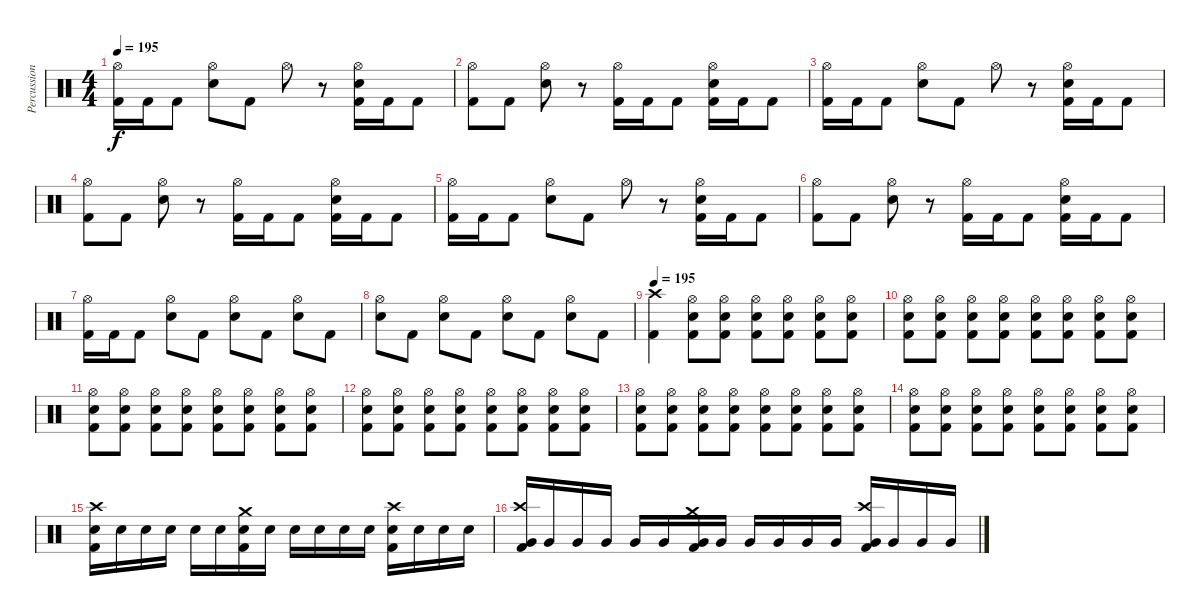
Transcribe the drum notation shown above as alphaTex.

\track ("Percussion" "Percussion") {instrument percussion}
\staff {score}
\articulation defaults
\ts (4 4)
\tempo 195
\clef neutral
\ks c
("Hi-Hat (open)" "Kick (hit) 2").16{dy f} "Kick (hit) 2".16 "Kick (hit) 2".8 ("Hi-Hat (open)" "Electric Snare (hit)").8 "Kick (hit) 2".8 "Hi-Hat (open)".8 r.8 ("Hi-Hat (open)" "Electric Snare (hit)" "Kick (hit) 2").16 "Kick (hit) 2".16 "Kick (hit) 2".8 |
("Hi-Hat (open)" "Kick (hit) 2").8 "Kick (hit) 2".8 ("Hi-Hat (open)" "Electric Snare (hit)").8 r.8 ("Hi-Hat (open)" "Kick (hit) 2").16 "Kick (hit) 2".16 "Kick (hit) 2".8 ("Hi-Hat (open)" "Electric Snare (hit)" "Kick (hit) 2").16 "Kick (hit) 2".16 "Kick (hit) 2".8 |
("Hi-Hat (open)" "Kick (hit) 2").16 "Kick (hit) 2".16 "Kick (hit) 2".8 ("Hi-Hat (open)" "Electric Snare (hit)").8 "Kick (hit) 2".8 "Hi-Hat (open)".8 r.8 ("Hi-Hat (open)" "Electric Snare (hit)" "Kick (hit) 2").16 "Kick (hit) 2".16 "Kick (hit) 2".8 |
("Hi-Hat (open)" "Kick (hit) 2").8 "Kick (hit) 2".8 ("Hi-Hat (open)" "Electric Snare (hit)").8 r.8 ("Hi-Hat (open)" "Kick (hit) 2").16 "Kick (hit) 2".16 "Kick (hit) 2".8 ("Hi-Hat (open)" "Electric Snare (hit)" "Kick (hit) 2").16 "Kick (hit) 2".16 "Kick (hit) 2".8 |
("Hi-Hat (open)" "Kick (hit) 2").16 "Kick (hit) 2".16 "Kick (hit) 2".8 ("Hi-Hat (open)" "Electric Snare (hit)").8 "Kick (hit) 2".8 "Hi-Hat (open)".8 r.8 ("Hi-Hat (open)" "Electric Snare (hit)" "Kick (hit) 2").16 "Kick (hit) 2".16 "Kick (hit) 2".8 |
("Hi-Hat (open)" "Kick (hit) 2").8 "Kick (hit) 2".8 ("Hi-Hat (open)" "Electric Snare (hit)").8 r.8 ("Hi-Hat (open)" "Kick (hit) 2").16 "Kick (hit) 2".16 "Kick (hit) 2".8 ("Hi-Hat (open)" "Electric Snare (hit)" "Kick (hit) 2").16 "Kick (hit) 2".16 "Kick (hit) 2".8 |
("Hi-Hat (open)" "Kick (hit) 2").16 "Kick (hit) 2".16 "Kick (hit) 2".8 ("Hi-Hat (open)" "Electric Snare (hit)").8 "Kick (hit) 2".8 ("Hi-Hat (open)" "Electric Snare (hit)").8 "Kick (hit) 2".8 ("Hi-Hat (open)" "Electric Snare (hit)").8 "Kick (hit) 2".8 |
("Hi-Hat (open)" "Electric Snare (hit)").8 "Kick (hit) 2".8 ("Hi-Hat (open)" "Electric Snare (hit)").8 "Kick (hit) 2".8 ("Hi-Hat (open)" "Electric Snare (hit)").8 "Kick (hit) 2".8 ("Hi-Hat (open)" "Electric Snare (hit)").8 "Kick (hit) 2".8 |
\tempo 195
("Crash high (hit)" "Kick (hit) 2").4 ("Hi-Hat (open)" "Electric Snare (hit)" "Kick (hit) 2").8 ("Hi-Hat (open)" "Electric Snare (hit)" "Kick (hit) 2").8 ("Hi-Hat (open)" "Electric Snare (hit)" "Kick (hit) 2").8 ("Hi-Hat (open)" "Electric Snare (hit)" "Kick (hit) 2").8 ("Hi-Hat (open)" "Electric Snare (hit)" "Kick (hit) 2").8 ("Hi-Hat (open)" "Electric Snare (hit)" "Kick (hit) 2").8 |
("Hi-Hat (open)" "Electric Snare (hit)" "Kick (hit) 2").8 ("Hi-Hat (open)" "Electric Snare (hit)" "Kick (hit) 2").8 ("Hi-Hat (open)" "Electric Snare (hit)" "Kick (hit) 2").8 ("Hi-Hat (open)" "Electric Snare (hit)" "Kick (hit) 2").8 ("Hi-Hat (open)" "Electric Snare (hit)" "Kick (hit) 2").8 ("Hi-Hat (open)" "Electric Snare (hit)" "Kick (hit) 2").8 ("Hi-Hat (open)" "Electric Snare (hit)" "Kick (hit) 2").8 ("Hi-Hat (open)" "Electric Snare (hit)" "Kick (hit) 2").8 |
("Hi-Hat (open)" "Electric Snare (hit)" "Kick (hit) 2").8 ("Hi-Hat (open)" "Electric Snare (hit)" "Kick (hit) 2").8 ("Hi-Hat (open)" "Electric Snare (hit)" "Kick (hit) 2").8 ("Hi-Hat (open)" "Electric Snare (hit)" "Kick (hit) 2").8 ("Hi-Hat (open)" "Electric Snare (hit)" "Kick (hit) 2").8 ("Hi-Hat (open)" "Electric Snare (hit)" "Kick (hit) 2").8 ("Hi-Hat (open)" "Electric Snare (hit)" "Kick (hit) 2").8 ("Hi-Hat (open)" "Electric Snare (hit)" "Kick (hit) 2").8 |
("Hi-Hat (open)" "Electric Snare (hit)" "Kick (hit) 2").8 ("Hi-Hat (open)" "Electric Snare (hit)" "Kick (hit) 2").8 ("Hi-Hat (open)" "Electric Snare (hit)" "Kick (hit) 2").8 ("Hi-Hat (open)" "Electric Snare (hit)" "Kick (hit) 2").8 ("Hi-Hat (open)" "Electric Snare (hit)" "Kick (hit) 2").8 ("Hi-Hat (open)" "Electric Snare (hit)" "Kick (hit) 2").8 ("Hi-Hat (open)" "Electric Snare (hit)" "Kick (hit) 2").8 ("Hi-Hat (open)" "Electric Snare (hit)" "Kick (hit) 2").8 |
("Hi-Hat (open)" "Electric Snare (hit)" "Kick (hit) 2").8 ("Hi-Hat (open)" "Electric Snare (hit)" "Kick (hit) 2").8 ("Hi-Hat (open)" "Electric Snare (hit)" "Kick (hit) 2").8 ("Hi-Hat (open)" "Electric Snare (hit)" "Kick (hit) 2").8 ("Hi-Hat (open)" "Electric Snare (hit)" "Kick (hit) 2").8 ("Hi-Hat (open)" "Electric Snare (hit)" "Kick (hit) 2").8 ("Hi-Hat (open)" "Electric Snare (hit)" "Kick (hit) 2").8 ("Hi-Hat (open)" "Electric Snare (hit)" "Kick (hit) 2").8 |
("Hi-Hat (open)" "Electric Snare (hit)" "Kick (hit) 2").8 ("Hi-Hat (open)" "Electric Snare (hit)" "Kick (hit) 2").8 ("Hi-Hat (open)" "Electric Snare (hit)" "Kick (hit) 2").8 ("Hi-Hat (open)" "Electric Snare (hit)" "Kick (hit) 2").8 ("Hi-Hat (open)" "Electric Snare (hit)" "Kick (hit) 2").8 ("Hi-Hat (open)" "Electric Snare (hit)" "Kick (hit) 2").8 ("Hi-Hat (open)" "Electric Snare (hit)" "Kick (hit) 2").8 ("Hi-Hat (open)" "Electric Snare (hit)" "Kick (hit) 2").8 |
("Crash high (hit)" "Electric Snare (hit)" "Kick (hit) 2").16 "Electric Snare (hit)".16 "Electric Snare (hit)".16 "Electric Snare (hit)".16 "Electric Snare (hit)".16 "Electric Snare (hit)".16 ("Crash medium (hit)" "Electric Snare (hit)" "Kick (hit) 2").16 "Electric Snare (hit)".16 "Electric Snare (hit)".16 "Electric Snare (hit)".16 "Electric Snare (hit)".16 "Electric Snare (hit)".16 ("Crash high (hit)" "Electric Snare (hit)" "Kick (hit) 2").16 "Electric Snare (hit)".16 "Electric Snare (hit)".16 "Electric Snare (hit)".16 |
("Crash high (hit)" "Very Low Tom (hit)" "Kick (hit) 2").16 "Very Low Tom (hit)".16 "Very Low Tom (hit)".16 "Very Low Tom (hit)".16 "Very Low Tom (hit)".16 "Very Low Tom (hit)".16 ("Crash medium (hit)" "Very Low Tom (hit)" "Kick (hit) 2").16 "Very Low Tom (hit)".16 "Very Low Tom (hit)".16 "Very Low Tom (hit)".16 "Very Low Tom (hit)".16 "Very Low Tom (hit)".16 ("Crash high (hit)" "Very Low Tom (hit)" "Kick (hit) 2").16 "Very Low Tom (hit)".16 "Very Low Tom (hit)".16 "Very Low Tom (hit)".16
